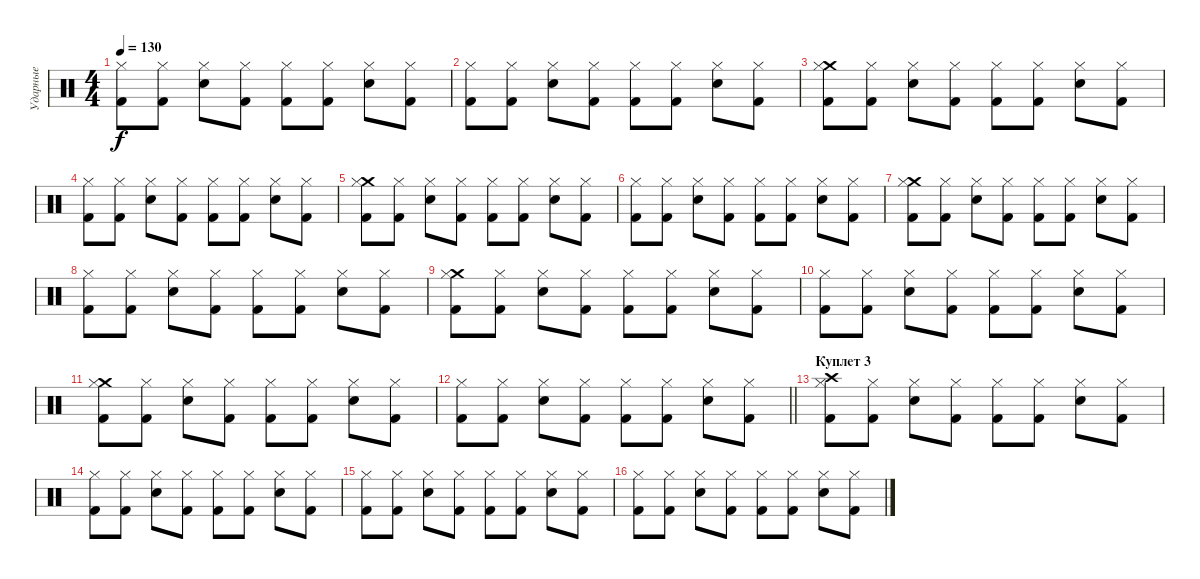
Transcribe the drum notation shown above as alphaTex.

\track ("Ударные" "Ударные") {instrument percussion}
\staff {score}
\articulation defaults
\ts (4 4)
\tempo 130
\clef neutral
\ks c
("Kick (hit) 2" "Hi-Hat (closed)").8{dy f} ("Kick (hit) 2" "Hi-Hat (closed)").8 ("Snare (hit) 2" "Hi-Hat (closed)").8 ("Kick (hit) 2" "Hi-Hat (closed)").8 ("Kick (hit) 2" "Hi-Hat (closed)").8 ("Kick (hit) 2" "Hi-Hat (closed)").8 ("Snare (hit) 2" "Hi-Hat (closed)").8 ("Kick (hit) 2" "Hi-Hat (closed)").8 |
("Kick (hit) 2" "Hi-Hat (closed)").8 ("Kick (hit) 2" "Hi-Hat (closed)").8 ("Snare (hit) 2" "Hi-Hat (closed)").8 ("Kick (hit) 2" "Hi-Hat (closed)").8 ("Kick (hit) 2" "Hi-Hat (closed)").8 ("Kick (hit) 2" "Hi-Hat (closed)").8 ("Snare (hit) 2" "Hi-Hat (closed)").8 ("Kick (hit) 2" "Hi-Hat (closed)").8 |
("Kick (hit) 2" "Crash medium (hit)" "Hi-Hat (closed)").8 ("Kick (hit) 2" "Hi-Hat (closed)").8 ("Snare (hit) 2" "Hi-Hat (closed)").8 ("Kick (hit) 2" "Hi-Hat (closed)").8 ("Kick (hit) 2" "Hi-Hat (closed)").8 ("Kick (hit) 2" "Hi-Hat (closed)").8 ("Snare (hit) 2" "Hi-Hat (closed)").8 ("Kick (hit) 2" "Hi-Hat (closed)").8 |
("Kick (hit) 2" "Hi-Hat (closed)").8 ("Kick (hit) 2" "Hi-Hat (closed)").8 ("Snare (hit) 2" "Hi-Hat (closed)").8 ("Kick (hit) 2" "Hi-Hat (closed)").8 ("Kick (hit) 2" "Hi-Hat (closed)").8 ("Kick (hit) 2" "Hi-Hat (closed)").8 ("Snare (hit) 2" "Hi-Hat (closed)").8 ("Kick (hit) 2" "Hi-Hat (closed)").8 |
("Kick (hit) 2" "Crash medium (hit)" "Hi-Hat (closed)").8 ("Kick (hit) 2" "Hi-Hat (closed)").8 ("Snare (hit) 2" "Hi-Hat (closed)").8 ("Kick (hit) 2" "Hi-Hat (closed)").8 ("Kick (hit) 2" "Hi-Hat (closed)").8 ("Kick (hit) 2" "Hi-Hat (closed)").8 ("Snare (hit) 2" "Hi-Hat (closed)").8 ("Kick (hit) 2" "Hi-Hat (closed)").8 |
("Kick (hit) 2" "Hi-Hat (closed)").8 ("Kick (hit) 2" "Hi-Hat (closed)").8 ("Snare (hit) 2" "Hi-Hat (closed)").8 ("Kick (hit) 2" "Hi-Hat (closed)").8 ("Kick (hit) 2" "Hi-Hat (closed)").8 ("Kick (hit) 2" "Hi-Hat (closed)").8 ("Snare (hit) 2" "Hi-Hat (closed)").8 ("Kick (hit) 2" "Hi-Hat (closed)").8 |
("Kick (hit) 2" "Crash medium (hit)" "Hi-Hat (closed)").8 ("Kick (hit) 2" "Hi-Hat (closed)").8 ("Snare (hit) 2" "Hi-Hat (closed)").8 ("Kick (hit) 2" "Hi-Hat (closed)").8 ("Kick (hit) 2" "Hi-Hat (closed)").8 ("Kick (hit) 2" "Hi-Hat (closed)").8 ("Snare (hit) 2" "Hi-Hat (closed)").8 ("Kick (hit) 2" "Hi-Hat (closed)").8 |
("Kick (hit) 2" "Hi-Hat (closed)").8 ("Kick (hit) 2" "Hi-Hat (closed)").8 ("Snare (hit) 2" "Hi-Hat (closed)").8 ("Kick (hit) 2" "Hi-Hat (closed)").8 ("Kick (hit) 2" "Hi-Hat (closed)").8 ("Kick (hit) 2" "Hi-Hat (closed)").8 ("Snare (hit) 2" "Hi-Hat (closed)").8 ("Kick (hit) 2" "Hi-Hat (closed)").8 |
("Kick (hit) 2" "Crash medium (hit)" "Hi-Hat (closed)").8 ("Kick (hit) 2" "Hi-Hat (closed)").8 ("Snare (hit) 2" "Hi-Hat (closed)").8 ("Kick (hit) 2" "Hi-Hat (closed)").8 ("Kick (hit) 2" "Hi-Hat (closed)").8 ("Kick (hit) 2" "Hi-Hat (closed)").8 ("Snare (hit) 2" "Hi-Hat (closed)").8 ("Kick (hit) 2" "Hi-Hat (closed)").8 |
("Kick (hit) 2" "Hi-Hat (closed)").8 ("Kick (hit) 2" "Hi-Hat (closed)").8 ("Snare (hit) 2" "Hi-Hat (closed)").8 ("Kick (hit) 2" "Hi-Hat (closed)").8 ("Kick (hit) 2" "Hi-Hat (closed)").8 ("Kick (hit) 2" "Hi-Hat (closed)").8 ("Snare (hit) 2" "Hi-Hat (closed)").8 ("Kick (hit) 2" "Hi-Hat (closed)").8 |
("Kick (hit) 2" "Crash medium (hit)" "Hi-Hat (closed)").8 ("Kick (hit) 2" "Hi-Hat (closed)").8 ("Snare (hit) 2" "Hi-Hat (closed)").8 ("Kick (hit) 2" "Hi-Hat (closed)").8 ("Kick (hit) 2" "Hi-Hat (closed)").8 ("Kick (hit) 2" "Hi-Hat (closed)").8 ("Snare (hit) 2" "Hi-Hat (closed)").8 ("Kick (hit) 2" "Hi-Hat (closed)").8 |
\barLineRight lightlight
("Kick (hit) 2" "Hi-Hat (closed)").8 ("Kick (hit) 2" "Hi-Hat (closed)").8 ("Snare (hit) 2" "Hi-Hat (closed)").8 ("Kick (hit) 2" "Hi-Hat (closed)").8 ("Kick (hit) 2" "Hi-Hat (closed)").8 ("Kick (hit) 2" "Hi-Hat (closed)").8 ("Snare (hit) 2" "Hi-Hat (closed)").8 ("Kick (hit) 2" "Hi-Hat (closed)").8 |
\section ("" "Куплет 3")
("Kick (hit) 2" "Crash high (hit)" "Hi-Hat (closed)").8 ("Kick (hit) 2" "Hi-Hat (closed)").8 ("Snare (hit) 2" "Hi-Hat (closed)").8 ("Kick (hit) 2" "Hi-Hat (closed)").8 ("Kick (hit) 2" "Hi-Hat (closed)").8 ("Kick (hit) 2" "Hi-Hat (closed)").8 ("Snare (hit) 2" "Hi-Hat (closed)").8 ("Kick (hit) 2" "Hi-Hat (closed)").8 |
("Kick (hit) 2" "Hi-Hat (closed)").8 ("Kick (hit) 2" "Hi-Hat (closed)").8 ("Snare (hit) 2" "Hi-Hat (closed)").8 ("Kick (hit) 2" "Hi-Hat (closed)").8 ("Kick (hit) 2" "Hi-Hat (closed)").8 ("Kick (hit) 2" "Hi-Hat (closed)").8 ("Snare (hit) 2" "Hi-Hat (closed)").8 ("Kick (hit) 2" "Hi-Hat (closed)").8 |
("Kick (hit) 2" "Hi-Hat (closed)").8 ("Kick (hit) 2" "Hi-Hat (closed)").8 ("Snare (hit) 2" "Hi-Hat (closed)").8 ("Kick (hit) 2" "Hi-Hat (closed)").8 ("Kick (hit) 2" "Hi-Hat (closed)").8 ("Kick (hit) 2" "Hi-Hat (closed)").8 ("Snare (hit) 2" "Hi-Hat (closed)").8 ("Kick (hit) 2" "Hi-Hat (closed)").8 |
("Kick (hit) 2" "Hi-Hat (closed)").8 ("Kick (hit) 2" "Hi-Hat (closed)").8 ("Snare (hit) 2" "Hi-Hat (closed)").8 ("Kick (hit) 2" "Hi-Hat (closed)").8 ("Kick (hit) 2" "Hi-Hat (closed)").8 ("Kick (hit) 2" "Hi-Hat (closed)").8 ("Snare (hit) 2" "Hi-Hat (closed)").8 ("Kick (hit) 2" "Hi-Hat (closed)").8
